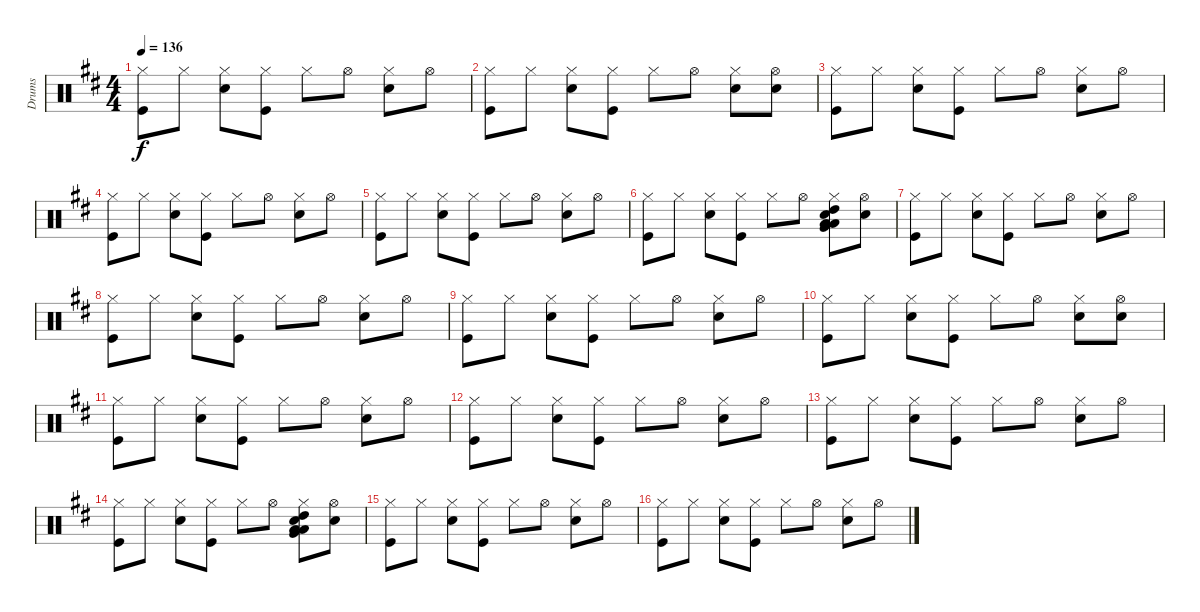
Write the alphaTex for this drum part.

\track ("Drums" "Drums") {instrument percussion}
\staff {score}
\articulation defaults
\ts (4 4)
\tempo 136
\clef neutral
\ks bminor
("Kick (hit)" "Hi-Hat (closed)").8{dy f} "Hi-Hat (closed)".8 ("Snare (hit) 2" "Hi-Hat (closed)").8 ("Kick (hit)" "Hi-Hat (closed)").8 "Hi-Hat (closed)".8 "Hi-Hat (open)".8 ("Snare (hit) 2" "Hi-Hat (closed)").8 "Hi-Hat (open)".8 |
("Kick (hit)" "Hi-Hat (closed)").8 "Hi-Hat (closed)".8 ("Snare (hit) 2" "Hi-Hat (closed)").8 ("Kick (hit)" "Hi-Hat (closed)").8 "Hi-Hat (closed)".8 "Hi-Hat (open)".8 ("Snare (hit) 2" "Hi-Hat (closed)").8 ("Snare (hit) 2" "Hi-Hat (open)").8 |
("Kick (hit)" "Hi-Hat (closed)").8 "Hi-Hat (closed)".8 ("Snare (hit) 2" "Hi-Hat (closed)").8 ("Kick (hit)" "Hi-Hat (closed)").8 "Hi-Hat (closed)".8 "Hi-Hat (open)".8 ("Snare (hit) 2" "Hi-Hat (closed)").8 "Hi-Hat (open)".8 |
("Kick (hit)" "Hi-Hat (closed)").8 "Hi-Hat (closed)".8 ("Snare (hit) 2" "Hi-Hat (closed)").8 ("Kick (hit)" "Hi-Hat (closed)").8 "Hi-Hat (closed)".8 "Hi-Hat (open)".8 ("Snare (hit) 2" "Hi-Hat (closed)").8 "Hi-Hat (open)".8 |
("Kick (hit)" "Hi-Hat (closed)").8 "Hi-Hat (closed)".8 ("Snare (hit) 2" "Hi-Hat (closed)").8 ("Kick (hit)" "Hi-Hat (closed)").8 "Hi-Hat (closed)".8 "Hi-Hat (open)".8 ("Snare (hit) 2" "Hi-Hat (closed)").8 "Hi-Hat (open)".8 |
("Kick (hit)" "Hi-Hat (closed)").8 "Hi-Hat (closed)".8 ("Snare (hit) 2" "Hi-Hat (closed)").8 ("Kick (hit)" "Hi-Hat (closed)").8 "Hi-Hat (closed)".8 "Hi-Hat (open)".8 ("High Tom (hit)" "Low Tom (hit)" "Very Low Tom (hit)" "Low Floor Tom (hit)" "Snare (hit) 2" "Hi-Hat (closed)").8 ("Snare (hit) 2" "Hi-Hat (open)").8 |
("Kick (hit)" "Hi-Hat (closed)").8 "Hi-Hat (closed)".8 ("Snare (hit) 2" "Hi-Hat (closed)").8 ("Kick (hit)" "Hi-Hat (closed)").8 "Hi-Hat (closed)".8 "Hi-Hat (open)".8 ("Snare (hit) 2" "Hi-Hat (closed)").8 "Hi-Hat (open)".8 |
("Kick (hit)" "Hi-Hat (closed)").8 "Hi-Hat (closed)".8 ("Snare (hit) 2" "Hi-Hat (closed)").8 ("Kick (hit)" "Hi-Hat (closed)").8 "Hi-Hat (closed)".8 "Hi-Hat (open)".8 ("Snare (hit) 2" "Hi-Hat (closed)").8 "Hi-Hat (open)".8 |
("Kick (hit)" "Hi-Hat (closed)").8 "Hi-Hat (closed)".8 ("Snare (hit) 2" "Hi-Hat (closed)").8 ("Kick (hit)" "Hi-Hat (closed)").8 "Hi-Hat (closed)".8 "Hi-Hat (open)".8 ("Snare (hit) 2" "Hi-Hat (closed)").8 "Hi-Hat (open)".8 |
("Kick (hit)" "Hi-Hat (closed)").8 "Hi-Hat (closed)".8 ("Snare (hit) 2" "Hi-Hat (closed)").8 ("Kick (hit)" "Hi-Hat (closed)").8 "Hi-Hat (closed)".8 "Hi-Hat (open)".8 ("Snare (hit) 2" "Hi-Hat (closed)").8 ("Snare (hit) 2" "Hi-Hat (open)").8 |
("Kick (hit)" "Hi-Hat (closed)").8 "Hi-Hat (closed)".8 ("Snare (hit) 2" "Hi-Hat (closed)").8 ("Kick (hit)" "Hi-Hat (closed)").8 "Hi-Hat (closed)".8 "Hi-Hat (open)".8 ("Snare (hit) 2" "Hi-Hat (closed)").8 "Hi-Hat (open)".8 |
("Kick (hit)" "Hi-Hat (closed)").8 "Hi-Hat (closed)".8 ("Snare (hit) 2" "Hi-Hat (closed)").8 ("Kick (hit)" "Hi-Hat (closed)").8 "Hi-Hat (closed)".8 "Hi-Hat (open)".8 ("Snare (hit) 2" "Hi-Hat (closed)").8 "Hi-Hat (open)".8 |
("Kick (hit)" "Hi-Hat (closed)").8 "Hi-Hat (closed)".8 ("Snare (hit) 2" "Hi-Hat (closed)").8 ("Kick (hit)" "Hi-Hat (closed)").8 "Hi-Hat (closed)".8 "Hi-Hat (open)".8 ("Snare (hit) 2" "Hi-Hat (closed)").8 "Hi-Hat (open)".8 |
("Kick (hit)" "Hi-Hat (closed)").8 "Hi-Hat (closed)".8 ("Snare (hit) 2" "Hi-Hat (closed)").8 ("Kick (hit)" "Hi-Hat (closed)").8 "Hi-Hat (closed)".8 "Hi-Hat (open)".8 ("High Tom (hit)" "Low Tom (hit)" "Very Low Tom (hit)" "Low Floor Tom (hit)" "Snare (hit) 2" "Hi-Hat (closed)").8 ("Snare (hit) 2" "Hi-Hat (open)").8 |
("Kick (hit)" "Hi-Hat (closed)").8 "Hi-Hat (closed)".8 ("Snare (hit) 2" "Hi-Hat (closed)").8 ("Kick (hit)" "Hi-Hat (closed)").8 "Hi-Hat (closed)".8 "Hi-Hat (open)".8 ("Snare (hit) 2" "Hi-Hat (closed)").8 "Hi-Hat (open)".8 |
("Kick (hit)" "Hi-Hat (closed)").8 "Hi-Hat (closed)".8 ("Snare (hit) 2" "Hi-Hat (closed)").8 ("Kick (hit)" "Hi-Hat (closed)").8 "Hi-Hat (closed)".8 "Hi-Hat (open)".8 ("Snare (hit) 2" "Hi-Hat (closed)").8 "Hi-Hat (open)".8
